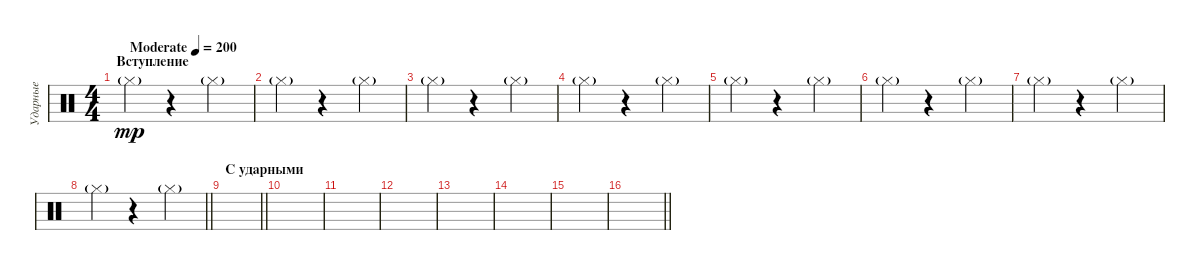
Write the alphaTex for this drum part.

\track ("Ударные" "Ударные") {instrument percussion}
\staff {score}
\articulation defaults
\ts (4 4)
\section ("" "Вступление")
\tempo (200 "Moderate")
\clef neutral
\ks c "Hi-Hat (closed)"{g}.4{dy mp}
r.4 "Hi-Hat (closed)"{g}.4 |
"Hi-Hat (closed)"{g}.4 r.4 "Hi-Hat (closed)"{g}.4 |
"Hi-Hat (closed)"{g}.4 r.4 "Hi-Hat (closed)"{g}.4 |
"Hi-Hat (closed)"{g}.4 r.4 "Hi-Hat (closed)"{g}.4 |
"Hi-Hat (closed)"{g}.4 r.4 "Hi-Hat (closed)"{g}.4 |
"Hi-Hat (closed)"{g}.4 r.4 "Hi-Hat (closed)"{g}.4 |
"Hi-Hat (closed)"{g}.4 r.4 "Hi-Hat (closed)"{g}.4 |
\barLineRight lightlight "Hi-Hat (closed)"{g}.4
r.4 "Hi-Hat (closed)"{g}.4 |
\section ("" "С ударными")
\barLineRight lightlight
|
|
|
|
|
|
|
\barLineRight lightlight
